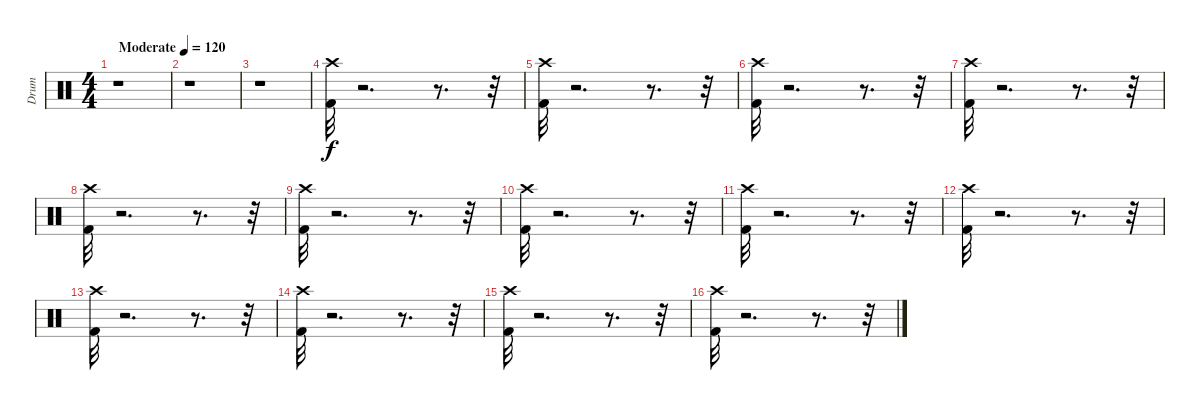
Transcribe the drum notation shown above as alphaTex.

\track ("Drum" "Drum") {instrument percussion}
\staff {score}
\articulation defaults
\ts (4 4)
\tempo (120 "Moderate")
\clef neutral
\ks c
r.1{dy f} |
r.1 |
r.1 |
("Kick (hit) 2" "Crash high (hit)").32 r.2{d} r.8{d} r.32 |
("Crash high (hit)" "Kick (hit) 2").32 r.2{d} r.8{d} r.32 |
("Kick (hit) 2" "Crash high (hit)").32 r.2{d} r.8{d} r.32 |
("Kick (hit) 2" "Crash high (hit)").32 r.2{d} r.8{d} r.32 |
("Kick (hit) 2" "Crash high (hit)").32 r.2{d} r.8{d} r.32 |
("Kick (hit) 2" "Crash high (hit)").32 r.2{d} r.8{d} r.32 |
("Kick (hit) 2" "Crash high (hit)").32 r.2{d} r.8{d} r.32 |
("Kick (hit) 2" "Crash high (hit)").32 r.2{d} r.8{d} r.32 |
("Kick (hit) 2" "Crash high (hit)").32 r.2{d} r.8{d} r.32 |
("Kick (hit) 2" "Crash high (hit)").32 r.2{d} r.8{d} r.32 |
("Kick (hit) 2" "Crash high (hit)").32 r.2{d} r.8{d} r.32 |
("Crash high (hit)" "Kick (hit) 2").32 r.2{d} r.8{d} r.32 |
("Kick (hit) 2" "Crash high (hit)").32 r.2{d} r.8{d} r.32
